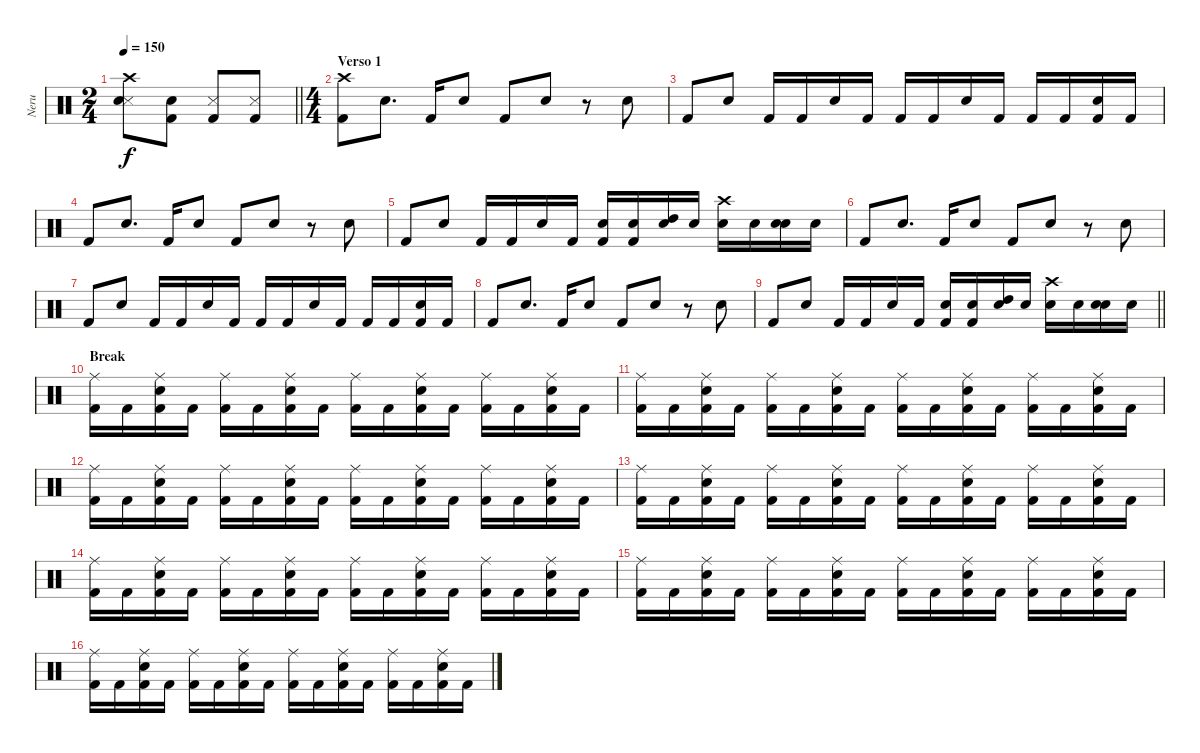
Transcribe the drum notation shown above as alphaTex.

\track ("Neru" "Neru") {instrument percussion}
\staff {score}
\articulation defaults
\ts (2 4)
\tempo 150
\clef neutral
\barLineRight lightlight
\ks c
("Snare (side stick) 3"{t} "Electric Snare (hit)"{t} "Crash high (hit)"{t}).8{dy f} ("Snare (hit) 2" "Kick (hit) 2").8 ("Kick (hit) 2" "Snare (side stick) 3").8 ("Kick (hit) 2" "Snare (side stick) 3").8 |
\ts (4 4)
\section ("" "Verso 1")
("Kick (hit) 2" "Crash high (hit)").8 "Electric Snare (hit)".8{d} "Kick (hit) 2".16 "Electric Snare (hit)".8 "Kick (hit) 2".8 "Electric Snare (hit)".8 r.8 "Electric Snare (hit)".8 |
"Kick (hit) 2".8 "Electric Snare (hit)".8 "Kick (hit) 2".16 "Kick (hit) 2".16 "Electric Snare (hit)".16 "Kick (hit) 2".16 "Kick (hit) 2".16 "Kick (hit) 2".16 "Electric Snare (hit)".16 "Kick (hit) 2".16 "Kick (hit) 2".16 "Kick (hit) 2".16 ("Kick (hit) 2" "Electric Snare (hit)").16 "Kick (hit) 2".16 |
"Kick (hit) 2".8 "Electric Snare (hit)".8{d} "Kick (hit) 2".16 "Electric Snare (hit)".8 "Kick (hit) 2".8 "Electric Snare (hit)".8 r.8 "Electric Snare (hit)".8 |
"Kick (hit) 2".8 "Electric Snare (hit)".8 "Kick (hit) 2".16 "Kick (hit) 2".16 "Electric Snare (hit)".16 "Kick (hit) 2".16 ("Snare (hit) 2" "Kick (hit) 2").16 ("Snare (hit) 2" "Kick (hit) 2").16 ("High Tom (hit)" "Electric Snare (hit)").16 "Snare (hit) 2".16 ("Snare (hit) 2" "Crash high (hit)").16 "Snare (hit) 2".16 ("Snare (hit) 2" "Electric Snare (hit)").16 "Snare (hit) 2".16 |
"Kick (hit) 2".8 "Electric Snare (hit)".8{d} "Kick (hit) 2".16 "Electric Snare (hit)".8 "Kick (hit) 2".8 "Electric Snare (hit)".8 r.8 "Electric Snare (hit)".8 |
"Kick (hit) 2".8 "Electric Snare (hit)".8 "Kick (hit) 2".16 "Kick (hit) 2".16 "Electric Snare (hit)".16 "Kick (hit) 2".16 "Kick (hit) 2".16 "Kick (hit) 2".16 "Electric Snare (hit)".16 "Kick (hit) 2".16 "Kick (hit) 2".16 "Kick (hit) 2".16 ("Kick (hit) 2" "Electric Snare (hit)").16 "Kick (hit) 2".16 |
"Kick (hit) 2".8 "Electric Snare (hit)".8{d} "Kick (hit) 2".16 "Electric Snare (hit)".8 "Kick (hit) 2".8 "Electric Snare (hit)".8 r.8 "Electric Snare (hit)".8 |
\barLineRight lightlight "Kick (hit) 2".8 "Electric Snare (hit)".8 "Kick (hit) 2".16 "Kick (hit) 2".16 "Electric Snare (hit)".16 "Kick (hit) 2".16
("Snare (hit) 2" "Kick (hit) 2").16 ("Snare (hit) 2" "Kick (hit) 2").16 ("High Tom (hit)" "Electric Snare (hit)").16 "Snare (hit) 2".16 ("Snare (hit) 2" "Crash high (hit)").16 "Snare (hit) 2".16 ("Snare (hit) 2" "Electric Snare (hit)").16 "Snare (hit) 2".16 |
\section ("" "Break")
("Kick (hit) 2" "Ride (middle)").16 "Kick (hit) 2".16 ("Kick (hit) 2" "Electric Snare (hit)" "Ride (middle)").16 "Kick (hit) 2".16 ("Kick (hit) 2" "Ride (middle)").16 "Kick (hit) 2".16 ("Kick (hit) 2" "Electric Snare (hit)" "Ride (middle)").16 "Kick (hit) 2".16 ("Kick (hit) 2" "Ride (middle)").16 "Kick (hit) 2".16 ("Kick (hit) 2" "Electric Snare (hit)" "Ride (middle)").16 "Kick (hit) 2".16 ("Kick (hit) 2" "Ride (middle)").16 "Kick (hit) 2".16 ("Kick (hit) 2" "Electric Snare (hit)" "Ride (middle)").16 "Kick (hit) 2".16 |
("Kick (hit) 2" "Ride (middle)").16 "Kick (hit) 2".16 ("Kick (hit) 2" "Electric Snare (hit)" "Ride (middle)").16 "Kick (hit) 2".16 ("Kick (hit) 2" "Ride (middle)").16 "Kick (hit) 2".16 ("Kick (hit) 2" "Electric Snare (hit)" "Ride (middle)").16 "Kick (hit) 2".16 ("Kick (hit) 2" "Ride (middle)").16 "Kick (hit) 2".16 ("Kick (hit) 2" "Electric Snare (hit)" "Ride (middle)").16 "Kick (hit) 2".16 ("Kick (hit) 2" "Ride (middle)").16 "Kick (hit) 2".16 ("Kick (hit) 2" "Electric Snare (hit)" "Ride (middle)").16 "Kick (hit) 2".16 |
("Kick (hit) 2" "Ride (middle)").16 "Kick (hit) 2".16 ("Kick (hit) 2" "Electric Snare (hit)" "Ride (middle)").16 "Kick (hit) 2".16 ("Kick (hit) 2" "Ride (middle)").16 "Kick (hit) 2".16 ("Kick (hit) 2" "Electric Snare (hit)" "Ride (middle)").16 "Kick (hit) 2".16 ("Kick (hit) 2" "Ride (middle)").16 "Kick (hit) 2".16 ("Kick (hit) 2" "Electric Snare (hit)" "Ride (middle)").16 "Kick (hit) 2".16 ("Kick (hit) 2" "Ride (middle)").16 "Kick (hit) 2".16 ("Kick (hit) 2" "Electric Snare (hit)" "Ride (middle)").16 "Kick (hit) 2".16 |
("Kick (hit) 2" "Ride (middle)").16 "Kick (hit) 2".16 ("Kick (hit) 2" "Electric Snare (hit)" "Ride (middle)").16 "Kick (hit) 2".16 ("Kick (hit) 2" "Ride (middle)").16 "Kick (hit) 2".16 ("Kick (hit) 2" "Electric Snare (hit)" "Ride (middle)").16 "Kick (hit) 2".16 ("Kick (hit) 2" "Ride (middle)").16 "Kick (hit) 2".16 ("Kick (hit) 2" "Electric Snare (hit)" "Ride (middle)").16 "Kick (hit) 2".16 ("Kick (hit) 2" "Ride (middle)").16 "Kick (hit) 2".16 ("Kick (hit) 2" "Electric Snare (hit)" "Ride (middle)").16 "Kick (hit) 2".16 |
("Kick (hit) 2" "Ride (middle)").16 "Kick (hit) 2".16 ("Kick (hit) 2" "Electric Snare (hit)" "Ride (middle)").16 "Kick (hit) 2".16 ("Kick (hit) 2" "Ride (middle)").16 "Kick (hit) 2".16 ("Kick (hit) 2" "Electric Snare (hit)" "Ride (middle)").16 "Kick (hit) 2".16 ("Kick (hit) 2" "Ride (middle)").16 "Kick (hit) 2".16 ("Kick (hit) 2" "Electric Snare (hit)" "Ride (middle)").16 "Kick (hit) 2".16 ("Kick (hit) 2" "Ride (middle)").16 "Kick (hit) 2".16 ("Kick (hit) 2" "Electric Snare (hit)" "Ride (middle)").16 "Kick (hit) 2".16 |
("Kick (hit) 2" "Ride (middle)").16 "Kick (hit) 2".16 ("Kick (hit) 2" "Electric Snare (hit)" "Ride (middle)").16 "Kick (hit) 2".16 ("Kick (hit) 2" "Ride (middle)").16 "Kick (hit) 2".16 ("Kick (hit) 2" "Electric Snare (hit)" "Ride (middle)").16 "Kick (hit) 2".16 ("Kick (hit) 2" "Ride (middle)").16 "Kick (hit) 2".16 ("Kick (hit) 2" "Electric Snare (hit)" "Ride (middle)").16 "Kick (hit) 2".16 ("Kick (hit) 2" "Ride (middle)").16 "Kick (hit) 2".16 ("Kick (hit) 2" "Electric Snare (hit)" "Ride (middle)").16 "Kick (hit) 2".16 |
("Kick (hit) 2" "Ride (middle)").16 "Kick (hit) 2".16 ("Kick (hit) 2" "Electric Snare (hit)" "Ride (middle)").16 "Kick (hit) 2".16 ("Kick (hit) 2" "Ride (middle)").16 "Kick (hit) 2".16 ("Kick (hit) 2" "Electric Snare (hit)" "Ride (middle)").16 "Kick (hit) 2".16 ("Kick (hit) 2" "Ride (middle)").16 "Kick (hit) 2".16 ("Kick (hit) 2" "Electric Snare (hit)" "Ride (middle)").16 "Kick (hit) 2".16 ("Kick (hit) 2" "Ride (middle)").16 "Kick (hit) 2".16 ("Kick (hit) 2" "Electric Snare (hit)" "Ride (middle)").16 "Kick (hit) 2".16
